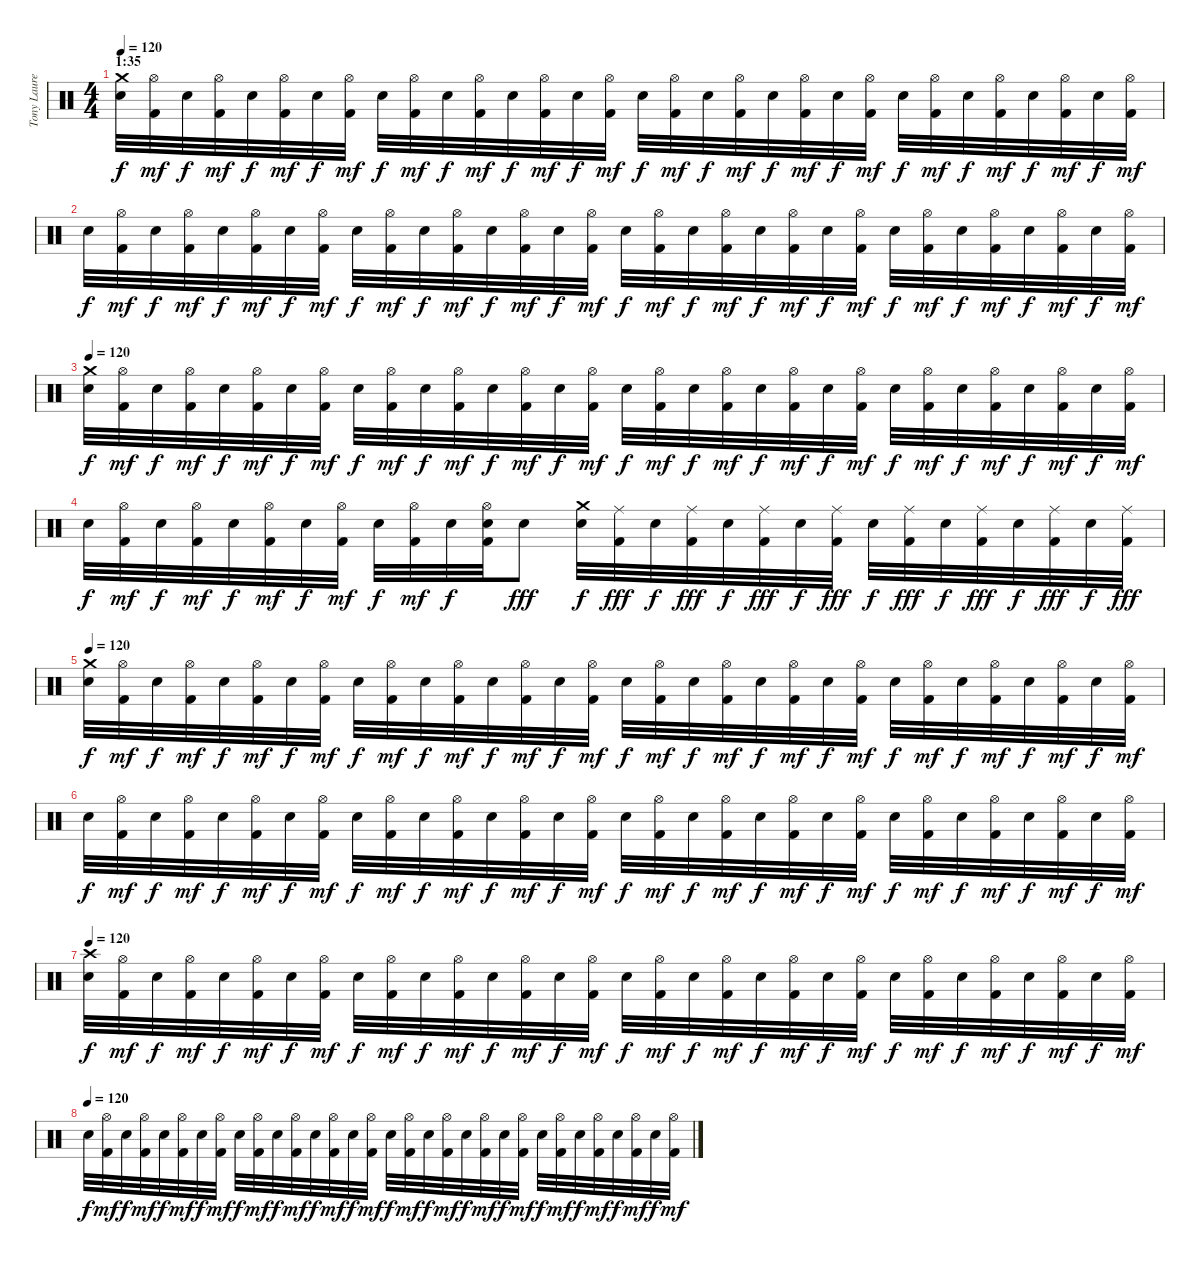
\track ("Tony Laureano" "Tony Laure") {instrument percussion}
\staff {score}
\articulation defaults
\ts (4 4)
\section ("" "1:35")
\tempo 120
\clef neutral
\ks c
("Crash medium (hit)" "Electric Snare (hit)").32{dy f} ("Hi-Hat (open)" "Kick (hit) 2").32{dy mf} "Electric Snare (hit)".32{dy f} ("Hi-Hat (open)" "Kick (hit) 2").32{dy mf} "Electric Snare (hit)".32{dy f} ("Hi-Hat (open)" "Kick (hit) 2").32{dy mf} "Electric Snare (hit)".32{dy f} ("Hi-Hat (open)" "Kick (hit) 2").32{dy mf} "Electric Snare (hit)".32{dy f} ("Hi-Hat (open)" "Kick (hit) 2").32{dy mf} "Electric Snare (hit)".32{dy f} ("Hi-Hat (open)" "Kick (hit) 2").32{dy mf} "Electric Snare (hit)".32{dy f} ("Hi-Hat (open)" "Kick (hit) 2").32{dy mf} "Electric Snare (hit)".32{dy f} ("Hi-Hat (open)" "Kick (hit) 2").32{dy mf} "Electric Snare (hit)".32{dy f} ("Hi-Hat (open)" "Kick (hit) 2").32{dy mf} "Electric Snare (hit)".32{dy f} ("Hi-Hat (open)" "Kick (hit) 2").32{dy mf} "Electric Snare (hit)".32{dy f} ("Hi-Hat (open)" "Kick (hit) 2").32{dy mf} "Electric Snare (hit)".32{dy f} ("Hi-Hat (open)" "Kick (hit) 2").32{dy mf} "Electric Snare (hit)".32{dy f} ("Hi-Hat (open)" "Kick (hit) 2").32{dy mf} "Electric Snare (hit)".32{dy f} ("Hi-Hat (open)" "Kick (hit) 2").32{dy mf} "Electric Snare (hit)".32{dy f} ("Hi-Hat (open)" "Kick (hit) 2").32{dy mf} "Electric Snare (hit)".32{dy f} ("Hi-Hat (open)" "Kick (hit) 2").32{dy mf} |
"Electric Snare (hit)".32{dy f} ("Hi-Hat (open)" "Kick (hit) 2").32{dy mf} "Electric Snare (hit)".32{dy f} ("Hi-Hat (open)" "Kick (hit) 2").32{dy mf} "Electric Snare (hit)".32{dy f} ("Hi-Hat (open)" "Kick (hit) 2").32{dy mf} "Electric Snare (hit)".32{dy f} ("Hi-Hat (open)" "Kick (hit) 2").32{dy mf} "Electric Snare (hit)".32{dy f} ("Hi-Hat (open)" "Kick (hit) 2").32{dy mf} "Electric Snare (hit)".32{dy f} ("Hi-Hat (open)" "Kick (hit) 2").32{dy mf} "Electric Snare (hit)".32{dy f} ("Hi-Hat (open)" "Kick (hit) 2").32{dy mf} "Electric Snare (hit)".32{dy f} ("Hi-Hat (open)" "Kick (hit) 2").32{dy mf} "Electric Snare (hit)".32{dy f} ("Hi-Hat (open)" "Kick (hit) 2").32{dy mf} "Electric Snare (hit)".32{dy f} ("Hi-Hat (open)" "Kick (hit) 2").32{dy mf} "Electric Snare (hit)".32{dy f} ("Hi-Hat (open)" "Kick (hit) 2").32{dy mf} "Electric Snare (hit)".32{dy f} ("Hi-Hat (open)" "Kick (hit) 2").32{dy mf} "Electric Snare (hit)".32{dy f} ("Hi-Hat (open)" "Kick (hit) 2").32{dy mf} "Electric Snare (hit)".32{dy f} ("Hi-Hat (open)" "Kick (hit) 2").32{dy mf} "Electric Snare (hit)".32{dy f} ("Hi-Hat (open)" "Kick (hit) 2").32{dy mf} "Electric Snare (hit)".32{dy f} ("Hi-Hat (open)" "Kick (hit) 2").32{dy mf} |
\tempo 120
("Crash medium (hit)" "Electric Snare (hit)").32{dy f} ("Hi-Hat (open)" "Kick (hit) 2").32{dy mf} "Electric Snare (hit)".32{dy f} ("Hi-Hat (open)" "Kick (hit) 2").32{dy mf} "Electric Snare (hit)".32{dy f} ("Hi-Hat (open)" "Kick (hit) 2").32{dy mf} "Electric Snare (hit)".32{dy f} ("Hi-Hat (open)" "Kick (hit) 2").32{dy mf} "Electric Snare (hit)".32{dy f} ("Hi-Hat (open)" "Kick (hit) 2").32{dy mf} "Electric Snare (hit)".32{dy f} ("Hi-Hat (open)" "Kick (hit) 2").32{dy mf} "Electric Snare (hit)".32{dy f} ("Hi-Hat (open)" "Kick (hit) 2").32{dy mf} "Electric Snare (hit)".32{dy f} ("Hi-Hat (open)" "Kick (hit) 2").32{dy mf} "Electric Snare (hit)".32{dy f} ("Hi-Hat (open)" "Kick (hit) 2").32{dy mf} "Electric Snare (hit)".32{dy f} ("Hi-Hat (open)" "Kick (hit) 2").32{dy mf} "Electric Snare (hit)".32{dy f} ("Hi-Hat (open)" "Kick (hit) 2").32{dy mf} "Electric Snare (hit)".32{dy f} ("Hi-Hat (open)" "Kick (hit) 2").32{dy mf} "Electric Snare (hit)".32{dy f} ("Hi-Hat (open)" "Kick (hit) 2").32{dy mf} "Electric Snare (hit)".32{dy f} ("Hi-Hat (open)" "Kick (hit) 2").32{dy mf} "Electric Snare (hit)".32{dy f} ("Hi-Hat (open)" "Kick (hit) 2").32{dy mf} "Electric Snare (hit)".32{dy f} ("Hi-Hat (open)" "Kick (hit) 2").32{dy mf} |
"Electric Snare (hit)".32{dy f} ("Hi-Hat (open)" "Kick (hit) 2").32{dy mf} "Electric Snare (hit)".32{dy f} ("Hi-Hat (open)" "Kick (hit) 2").32{dy mf} "Electric Snare (hit)".32{dy f} ("Hi-Hat (open)" "Kick (hit) 2").32{dy mf} "Electric Snare (hit)".32{dy f} ("Hi-Hat (open)" "Kick (hit) 2").32{dy mf} "Electric Snare (hit)".32{dy f} ("Hi-Hat (open)" "Kick (hit) 2").32{dy mf} "Electric Snare (hit)".32{dy f} ("Hi-Hat (open)" "Electric Snare (hit)" "Kick (hit) 2").32 "Electric Snare (hit)".8{dy fff} ("Crash medium (hit)" "Electric Snare (hit)").32{dy f} ("Ride (middle)" "Kick (hit) 2").32{dy fff} "Electric Snare (hit)".32{dy f} ("Ride (middle)" "Kick (hit) 2").32{dy fff} "Electric Snare (hit)".32{dy f} ("Ride (middle)" "Kick (hit) 2").32{dy fff} "Electric Snare (hit)".32{dy f} ("Ride (middle)" "Kick (hit) 2").32{dy fff} "Electric Snare (hit)".32{dy f} ("Ride (middle)" "Kick (hit) 2").32{dy fff} "Electric Snare (hit)".32{dy f} ("Ride (middle)" "Kick (hit) 2").32{dy fff} "Electric Snare (hit)".32{dy f} ("Ride (middle)" "Kick (hit) 2").32{dy fff} "Electric Snare (hit)".32{dy f} ("Ride (middle)" "Kick (hit) 2").32{dy fff} |
\tempo 120
("Crash medium (hit)" "Electric Snare (hit)").32{dy f} ("Hi-Hat (open)" "Kick (hit) 2").32{dy mf} "Electric Snare (hit)".32{dy f} ("Hi-Hat (open)" "Kick (hit) 2").32{dy mf} "Electric Snare (hit)".32{dy f} ("Hi-Hat (open)" "Kick (hit) 2").32{dy mf} "Electric Snare (hit)".32{dy f} ("Hi-Hat (open)" "Kick (hit) 2").32{dy mf} "Electric Snare (hit)".32{dy f} ("Hi-Hat (open)" "Kick (hit) 2").32{dy mf} "Electric Snare (hit)".32{dy f} ("Hi-Hat (open)" "Kick (hit) 2").32{dy mf} "Electric Snare (hit)".32{dy f} ("Hi-Hat (open)" "Kick (hit) 2").32{dy mf} "Electric Snare (hit)".32{dy f} ("Hi-Hat (open)" "Kick (hit) 2").32{dy mf} "Electric Snare (hit)".32{dy f} ("Hi-Hat (open)" "Kick (hit) 2").32{dy mf} "Electric Snare (hit)".32{dy f} ("Hi-Hat (open)" "Kick (hit) 2").32{dy mf} "Electric Snare (hit)".32{dy f} ("Hi-Hat (open)" "Kick (hit) 2").32{dy mf} "Electric Snare (hit)".32{dy f} ("Hi-Hat (open)" "Kick (hit) 2").32{dy mf} "Electric Snare (hit)".32{dy f} ("Hi-Hat (open)" "Kick (hit) 2").32{dy mf} "Electric Snare (hit)".32{dy f} ("Hi-Hat (open)" "Kick (hit) 2").32{dy mf} "Electric Snare (hit)".32{dy f} ("Hi-Hat (open)" "Kick (hit) 2").32{dy mf} "Electric Snare (hit)".32{dy f} ("Hi-Hat (open)" "Kick (hit) 2").32{dy mf} |
"Electric Snare (hit)".32{dy f} ("Hi-Hat (open)" "Kick (hit) 2").32{dy mf} "Electric Snare (hit)".32{dy f} ("Hi-Hat (open)" "Kick (hit) 2").32{dy mf} "Electric Snare (hit)".32{dy f} ("Hi-Hat (open)" "Kick (hit) 2").32{dy mf} "Electric Snare (hit)".32{dy f} ("Hi-Hat (open)" "Kick (hit) 2").32{dy mf} "Electric Snare (hit)".32{dy f} ("Hi-Hat (open)" "Kick (hit) 2").32{dy mf} "Electric Snare (hit)".32{dy f} ("Hi-Hat (open)" "Kick (hit) 2").32{dy mf} "Electric Snare (hit)".32{dy f} ("Hi-Hat (open)" "Kick (hit) 2").32{dy mf} "Electric Snare (hit)".32{dy f} ("Hi-Hat (open)" "Kick (hit) 2").32{dy mf} "Electric Snare (hit)".32{dy f} ("Hi-Hat (open)" "Kick (hit) 2").32{dy mf} "Electric Snare (hit)".32{dy f} ("Hi-Hat (open)" "Kick (hit) 2").32{dy mf} "Electric Snare (hit)".32{dy f} ("Hi-Hat (open)" "Kick (hit) 2").32{dy mf} "Electric Snare (hit)".32{dy f} ("Hi-Hat (open)" "Kick (hit) 2").32{dy mf} "Electric Snare (hit)".32{dy f} ("Hi-Hat (open)" "Kick (hit) 2").32{dy mf} "Electric Snare (hit)".32{dy f} ("Hi-Hat (open)" "Kick (hit) 2").32{dy mf} "Electric Snare (hit)".32{dy f} ("Hi-Hat (open)" "Kick (hit) 2").32{dy mf} "Electric Snare (hit)".32{dy f} ("Hi-Hat (open)" "Kick (hit) 2").32{dy mf} |
\tempo 120
("Crash high (hit)" "Electric Snare (hit)").32{dy f} ("Hi-Hat (open)" "Kick (hit) 2").32{dy mf} "Electric Snare (hit)".32{dy f} ("Hi-Hat (open)" "Kick (hit) 2").32{dy mf} "Electric Snare (hit)".32{dy f} ("Hi-Hat (open)" "Kick (hit) 2").32{dy mf} "Electric Snare (hit)".32{dy f} ("Hi-Hat (open)" "Kick (hit) 2").32{dy mf} "Electric Snare (hit)".32{dy f} ("Hi-Hat (open)" "Kick (hit) 2").32{dy mf} "Electric Snare (hit)".32{dy f} ("Hi-Hat (open)" "Kick (hit) 2").32{dy mf} "Electric Snare (hit)".32{dy f} ("Hi-Hat (open)" "Kick (hit) 2").32{dy mf} "Electric Snare (hit)".32{dy f} ("Hi-Hat (open)" "Kick (hit) 2").32{dy mf} "Electric Snare (hit)".32{dy f} ("Hi-Hat (open)" "Kick (hit) 2").32{dy mf} "Electric Snare (hit)".32{dy f} ("Hi-Hat (open)" "Kick (hit) 2").32{dy mf} "Electric Snare (hit)".32{dy f} ("Hi-Hat (open)" "Kick (hit) 2").32{dy mf} "Electric Snare (hit)".32{dy f} ("Hi-Hat (open)" "Kick (hit) 2").32{dy mf} "Electric Snare (hit)".32{dy f} ("Hi-Hat (open)" "Kick (hit) 2").32{dy mf} "Electric Snare (hit)".32{dy f} ("Hi-Hat (open)" "Kick (hit) 2").32{dy mf} "Electric Snare (hit)".32{dy f} ("Hi-Hat (open)" "Kick (hit) 2").32{dy mf} "Electric Snare (hit)".32{dy f} ("Hi-Hat (open)" "Kick (hit) 2").32{dy mf} |
\tempo (120)
"Electric Snare (hit)".32{dy f} ("Hi-Hat (open)" "Kick (hit) 2").32{dy mf} "Electric Snare (hit)".32{dy f} ("Hi-Hat (open)" "Kick (hit) 2").32{dy mf} "Electric Snare (hit)".32{dy f} ("Hi-Hat (open)" "Kick (hit) 2").32{dy mf} "Electric Snare (hit)".32{dy f} ("Hi-Hat (open)" "Kick (hit) 2").32{dy mf} "Electric Snare (hit)".32{dy f} ("Hi-Hat (open)" "Kick (hit) 2").32{dy mf} "Electric Snare (hit)".32{dy f} ("Hi-Hat (open)" "Kick (hit) 2").32{dy mf} "Electric Snare (hit)".32{dy f} ("Hi-Hat (open)" "Kick (hit) 2").32{dy mf} "Electric Snare (hit)".32{dy f} ("Hi-Hat (open)" "Kick (hit) 2").32{dy mf} "Electric Snare (hit)".32{dy f} ("Hi-Hat (open)" "Kick (hit) 2").32{dy mf} "Electric Snare (hit)".32{dy f} ("Hi-Hat (open)" "Kick (hit) 2").32{dy mf} "Electric Snare (hit)".32{dy f} ("Hi-Hat (open)" "Kick (hit) 2").32{dy mf} "Electric Snare (hit)".32{dy f} ("Hi-Hat (open)" "Kick (hit) 2").32{dy mf} "Electric Snare (hit)".32{dy f} ("Hi-Hat (open)" "Kick (hit) 2").32{dy mf} "Electric Snare (hit)".32{dy f} ("Hi-Hat (open)" "Kick (hit) 2").32{dy mf} "Electric Snare (hit)".32{dy f} ("Hi-Hat (open)" "Kick (hit) 2").32{dy mf} "Electric Snare (hit)".32{dy f} ("Hi-Hat (open)" "Kick (hit) 2").32{dy mf}
